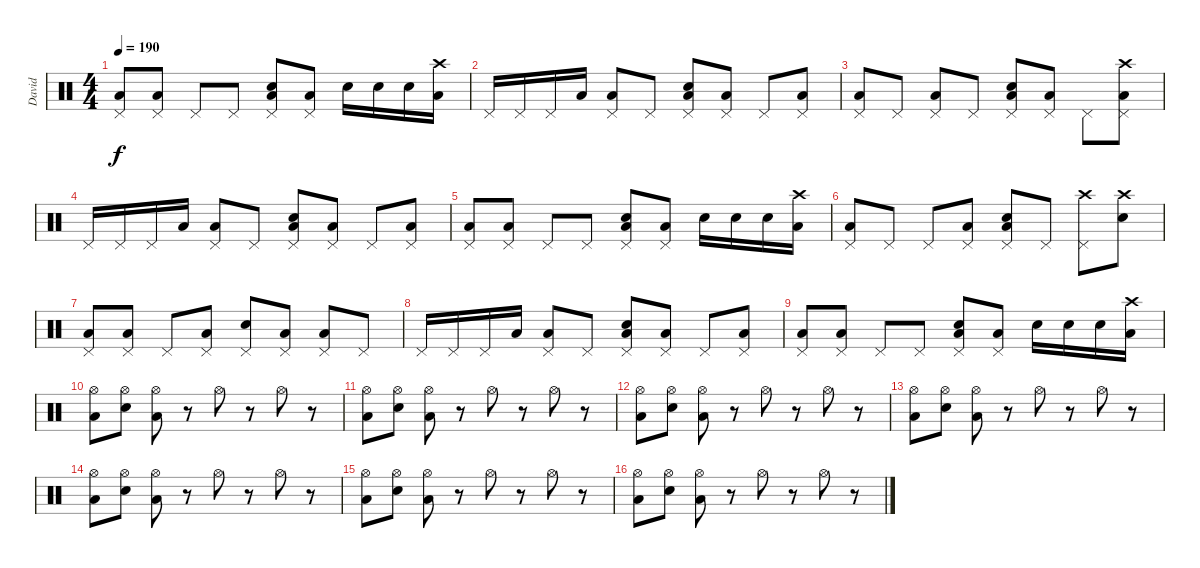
\track ("David" "David") {instrument percussion}
\staff {score}
\articulation defaults
\ts (4 4)
\tempo 190
\clef neutral
\ks c
("Pedal Hi-Hat (hit)" "Low Tom (hit)").8{dy f} ("Pedal Hi-Hat (hit)" "Low Tom (hit)").8 "Pedal Hi-Hat (hit)".8 "Pedal Hi-Hat (hit)".8 ("Pedal Hi-Hat (hit)" "Electric Snare (hit)" "Low Tom (hit)").8 ("Pedal Hi-Hat (hit)" "Low Tom (hit)").8 "Electric Snare (hit)".16 "Electric Snare (hit)".16 "Electric Snare (hit)".16 ("Crash high (hit)" "Low Tom (hit)").16 |
"Pedal Hi-Hat (hit)".16 "Pedal Hi-Hat (hit)".16 "Pedal Hi-Hat (hit)".16 "Low Tom (hit)".16 ("Pedal Hi-Hat (hit)" "Low Tom (hit)").8 "Pedal Hi-Hat (hit)".8 ("Pedal Hi-Hat (hit)" "Electric Snare (hit)" "Low Tom (hit)").8 ("Pedal Hi-Hat (hit)" "Low Tom (hit)").8 "Pedal Hi-Hat (hit)".8 ("Pedal Hi-Hat (hit)" "Low Tom (hit)").8 |
("Pedal Hi-Hat (hit)" "Low Tom (hit)").8 "Pedal Hi-Hat (hit)".8 ("Pedal Hi-Hat (hit)" "Low Tom (hit)").8 "Pedal Hi-Hat (hit)".8 ("Pedal Hi-Hat (hit)" "Electric Snare (hit)" "Low Tom (hit)").8 ("Pedal Hi-Hat (hit)" "Low Tom (hit)").8 "Pedal Hi-Hat (hit)".8 ("Crash high (hit)" "Pedal Hi-Hat (hit)" "Low Tom (hit)").8 |
"Pedal Hi-Hat (hit)".16 "Pedal Hi-Hat (hit)".16 "Pedal Hi-Hat (hit)".16 "Low Tom (hit)".16 ("Pedal Hi-Hat (hit)" "Low Tom (hit)").8 "Pedal Hi-Hat (hit)".8 ("Pedal Hi-Hat (hit)" "Electric Snare (hit)" "Low Tom (hit)").8 ("Pedal Hi-Hat (hit)" "Low Tom (hit)").8 "Pedal Hi-Hat (hit)".8 ("Pedal Hi-Hat (hit)" "Low Tom (hit)").8 |
("Pedal Hi-Hat (hit)" "Low Tom (hit)").8 ("Pedal Hi-Hat (hit)" "Low Tom (hit)").8 "Pedal Hi-Hat (hit)".8 "Pedal Hi-Hat (hit)".8 ("Pedal Hi-Hat (hit)" "Electric Snare (hit)" "Low Tom (hit)").8 ("Pedal Hi-Hat (hit)" "Low Tom (hit)").8 "Electric Snare (hit)".16 "Electric Snare (hit)".16 "Electric Snare (hit)".16 ("Crash high (hit)" "Low Tom (hit)").16 |
("Pedal Hi-Hat (hit)" "Low Tom (hit)").8 "Pedal Hi-Hat (hit)".8 "Pedal Hi-Hat (hit)".8 ("Pedal Hi-Hat (hit)" "Low Tom (hit)").8 ("Pedal Hi-Hat (hit)" "Electric Snare (hit)" "Low Tom (hit)").8 "Pedal Hi-Hat (hit)".8 ("Crash high (hit)" "Pedal Hi-Hat (hit)").8 ("Crash high (hit)" "Electric Snare (hit)").8 |
("Pedal Hi-Hat (hit)" "Low Tom (hit)").8 ("Pedal Hi-Hat (hit)" "Low Tom (hit)").8 "Pedal Hi-Hat (hit)".8 ("Pedal Hi-Hat (hit)" "Low Tom (hit)").8 ("Pedal Hi-Hat (hit)" "Electric Snare (hit)").8 ("Pedal Hi-Hat (hit)" "Low Tom (hit)").8 ("Pedal Hi-Hat (hit)" "Low Tom (hit)").8 "Pedal Hi-Hat (hit)".8 |
"Pedal Hi-Hat (hit)".16 "Pedal Hi-Hat (hit)".16 "Pedal Hi-Hat (hit)".16 "Low Tom (hit)".16 ("Pedal Hi-Hat (hit)" "Low Tom (hit)").8 "Pedal Hi-Hat (hit)".8 ("Pedal Hi-Hat (hit)" "Electric Snare (hit)" "Low Tom (hit)").8 ("Pedal Hi-Hat (hit)" "Low Tom (hit)").8 "Pedal Hi-Hat (hit)".8 ("Pedal Hi-Hat (hit)" "Low Tom (hit)").8 |
("Pedal Hi-Hat (hit)" "Low Tom (hit)").8 ("Pedal Hi-Hat (hit)" "Low Tom (hit)").8 "Pedal Hi-Hat (hit)".8 "Pedal Hi-Hat (hit)".8 ("Pedal Hi-Hat (hit)" "Electric Snare (hit)" "Low Tom (hit)").8 ("Pedal Hi-Hat (hit)" "Low Tom (hit)").8 "Electric Snare (hit)".16 "Electric Snare (hit)".16 "Electric Snare (hit)".16 ("Crash high (hit)" "Low Tom (hit)").16 |
("Hi-Hat (open)" "Low Tom (hit)").8 ("Hi-Hat (open)" "Electric Snare (hit)").8 ("Hi-Hat (open)" "Low Tom (hit)").8 r.8 "Hi-Hat (open)".8 r.8 "Hi-Hat (open)".8 r.8 |
("Hi-Hat (open)" "Low Tom (hit)").8 ("Hi-Hat (open)" "Electric Snare (hit)").8 ("Hi-Hat (open)" "Low Tom (hit)").8 r.8 "Hi-Hat (open)".8 r.8 "Hi-Hat (open)".8 r.8 |
("Hi-Hat (open)" "Low Tom (hit)").8 ("Hi-Hat (open)" "Electric Snare (hit)").8 ("Hi-Hat (open)" "Low Tom (hit)").8 r.8 "Hi-Hat (open)".8 r.8 "Hi-Hat (open)".8 r.8 |
("Hi-Hat (open)" "Low Tom (hit)").8 ("Hi-Hat (open)" "Electric Snare (hit)").8 ("Hi-Hat (open)" "Low Tom (hit)").8 r.8 "Hi-Hat (open)".8 r.8 "Hi-Hat (open)".8 r.8 |
("Hi-Hat (open)" "Low Tom (hit)").8 ("Hi-Hat (open)" "Electric Snare (hit)").8 ("Hi-Hat (open)" "Low Tom (hit)").8 r.8 "Hi-Hat (open)".8 r.8 "Hi-Hat (open)".8 r.8 |
("Hi-Hat (open)" "Low Tom (hit)").8 ("Hi-Hat (open)" "Electric Snare (hit)").8 ("Hi-Hat (open)" "Low Tom (hit)").8 r.8 "Hi-Hat (open)".8 r.8 "Hi-Hat (open)".8 r.8 |
("Hi-Hat (open)" "Low Tom (hit)").8 ("Hi-Hat (open)" "Electric Snare (hit)").8 ("Hi-Hat (open)" "Low Tom (hit)").8 r.8 "Hi-Hat (open)".8 r.8 "Hi-Hat (open)".8 r.8
